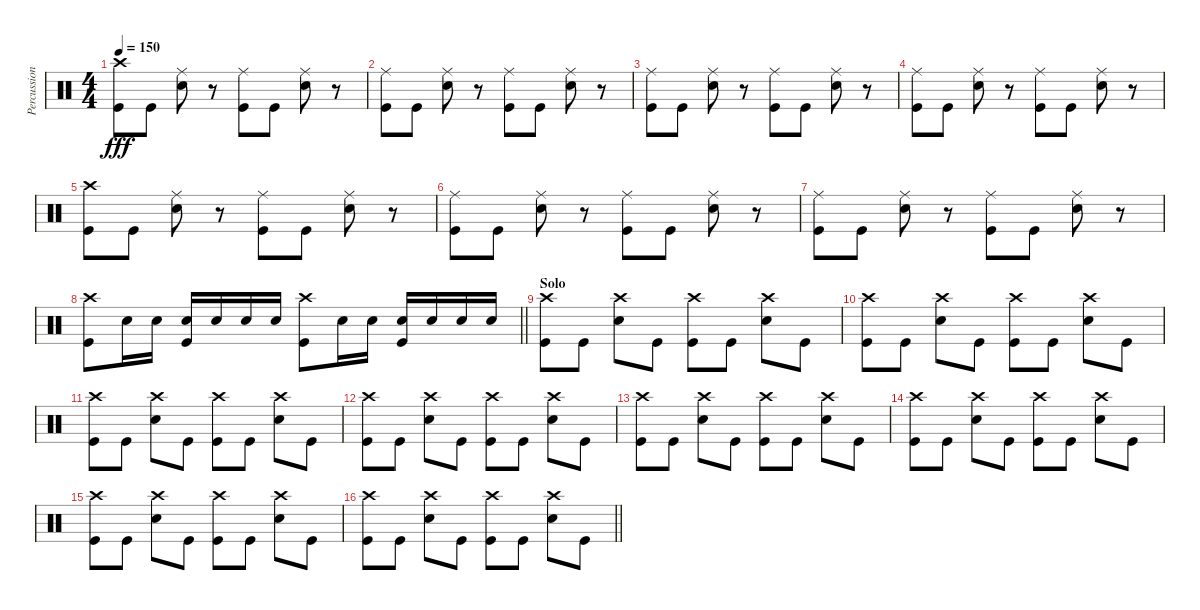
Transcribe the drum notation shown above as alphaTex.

\track ("Percussion" "Percussion") {instrument percussion}
\staff {score}
\articulation defaults
\ts (4 4)
\tempo 150
\clef neutral
\ks c
("Crash high (hit)" "Kick (hit)").8{dy fff} "Kick (hit)".8 ("Ride (middle)" "Snare (hit) 2").8 r.8 ("Ride (middle)" "Kick (hit)").8 "Kick (hit)".8 ("Ride (middle)" "Snare (hit) 2").8 r.8 |
("Ride (middle)" "Kick (hit)").8 "Kick (hit)".8 ("Ride (middle)" "Snare (hit) 2").8 r.8 ("Ride (middle)" "Kick (hit)").8 "Kick (hit)".8 ("Ride (middle)" "Snare (hit) 2").8 r.8 |
("Ride (middle)" "Kick (hit)").8 "Kick (hit)".8 ("Ride (middle)" "Snare (hit) 2").8 r.8 ("Ride (middle)" "Kick (hit)").8 "Kick (hit)".8 ("Ride (middle)" "Snare (hit) 2").8 r.8 |
("Ride (middle)" "Kick (hit)").8 "Kick (hit)".8 ("Ride (middle)" "Snare (hit) 2").8 r.8 ("Ride (middle)" "Kick (hit)").8 "Kick (hit)".8 ("Ride (middle)" "Snare (hit) 2").8 r.8 |
("Crash high (hit)" "Kick (hit)").8 "Kick (hit)".8 ("Ride (middle)" "Snare (hit) 2").8 r.8 ("Ride (middle)" "Kick (hit)").8 "Kick (hit)".8 ("Ride (middle)" "Snare (hit) 2").8 r.8 |
("Ride (middle)" "Kick (hit)").8 "Kick (hit)".8 ("Ride (middle)" "Snare (hit) 2").8 r.8 ("Ride (middle)" "Kick (hit)").8 "Kick (hit)".8 ("Ride (middle)" "Snare (hit) 2").8 r.8 |
("Ride (middle)" "Kick (hit)").8 "Kick (hit)".8 ("Ride (middle)" "Snare (hit) 2").8 r.8 ("Ride (middle)" "Kick (hit)").8 "Kick (hit)".8 ("Ride (middle)" "Snare (hit) 2").8 r.8 |
\barLineRight lightlight
("Crash high (hit)" "Kick (hit)").8 "Snare (hit) 2".16 "Snare (hit) 2".16 ("Snare (hit) 2" "Kick (hit)").16 "Snare (hit) 2".16 "Snare (hit) 2".16 "Snare (hit) 2".16 ("Crash high (hit)" "Kick (hit)").8 "Snare (hit) 2".16 "Snare (hit) 2".16 ("Snare (hit) 2" "Kick (hit)").16 "Snare (hit) 2".16 "Snare (hit) 2".16 "Snare (hit) 2".16 |
\section ("" "Solo")
("Crash high (hit)" "Kick (hit)").8 "Kick (hit)".8 ("Crash high (hit)" "Snare (hit) 2").8 "Kick (hit)".8 ("Crash high (hit)" "Kick (hit)").8 "Kick (hit)".8 ("Crash high (hit)" "Snare (hit) 2").8 "Kick (hit)".8 |
("Crash high (hit)" "Kick (hit)").8 "Kick (hit)".8 ("Crash high (hit)" "Snare (hit) 2").8 "Kick (hit)".8 ("Crash high (hit)" "Kick (hit)").8 "Kick (hit)".8 ("Crash high (hit)" "Snare (hit) 2").8 "Kick (hit)".8 |
("Crash high (hit)" "Kick (hit)").8 "Kick (hit)".8 ("Crash high (hit)" "Snare (hit) 2").8 "Kick (hit)".8 ("Crash high (hit)" "Kick (hit)").8 "Kick (hit)".8 ("Crash high (hit)" "Snare (hit) 2").8 "Kick (hit)".8 |
("Crash high (hit)" "Kick (hit)").8 "Kick (hit)".8 ("Crash high (hit)" "Snare (hit) 2").8 "Kick (hit)".8 ("Crash high (hit)" "Kick (hit)").8 "Kick (hit)".8 ("Crash high (hit)" "Snare (hit) 2").8 "Kick (hit)".8 |
("Crash high (hit)" "Kick (hit)").8 "Kick (hit)".8 ("Crash high (hit)" "Snare (hit) 2").8 "Kick (hit)".8 ("Crash high (hit)" "Kick (hit)").8 "Kick (hit)".8 ("Crash high (hit)" "Snare (hit) 2").8 "Kick (hit)".8 |
("Crash high (hit)" "Kick (hit)").8 "Kick (hit)".8 ("Crash high (hit)" "Snare (hit) 2").8 "Kick (hit)".8 ("Crash high (hit)" "Kick (hit)").8 "Kick (hit)".8 ("Crash high (hit)" "Snare (hit) 2").8 "Kick (hit)".8 |
("Crash high (hit)" "Kick (hit)").8 "Kick (hit)".8 ("Crash high (hit)" "Snare (hit) 2").8 "Kick (hit)".8 ("Crash high (hit)" "Kick (hit)").8 "Kick (hit)".8 ("Crash high (hit)" "Snare (hit) 2").8 "Kick (hit)".8 |
\barLineRight lightlight
("Crash high (hit)" "Kick (hit)").8 "Kick (hit)".8 ("Crash high (hit)" "Snare (hit) 2").8 "Kick (hit)".8 ("Crash high (hit)" "Kick (hit)").8 "Kick (hit)".8 ("Crash high (hit)" "Snare (hit) 2").8 "Kick (hit)".8
